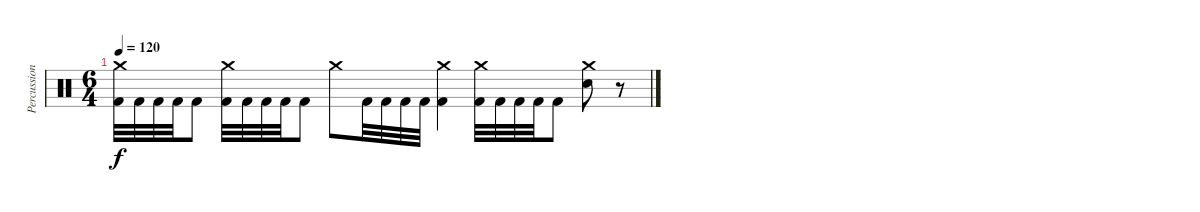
\track ("Percussion" "Percussion") {instrument percussion}
\staff {score}
\articulation defaults
\ts (6 4)
\tempo 120
\clef neutral
\ks c
("Crash medium (hit)" "Kick (hit) 2").32{dy f} "Kick (hit) 2".32 "Kick (hit) 2".32 "Kick (hit) 2".32 "Kick (hit) 2".8 ("Crash medium (hit)" "Kick (hit) 2").32 "Kick (hit) 2".32 "Kick (hit) 2".32 "Kick (hit) 2".32 "Kick (hit) 2".8 "Crash medium (hit)".8 "Kick (hit) 2".32 "Kick (hit) 2".32 "Kick (hit) 2".32 "Kick (hit) 2".32 ("Crash medium (hit)" "Kick (hit) 2").4 ("Crash medium (hit)" "Kick (hit) 2").32 "Kick (hit) 2".32 "Kick (hit) 2".32 "Kick (hit) 2".32 "Kick (hit) 2".8 ("Crash medium (hit)" "Electric Snare (hit)").8 r.8
